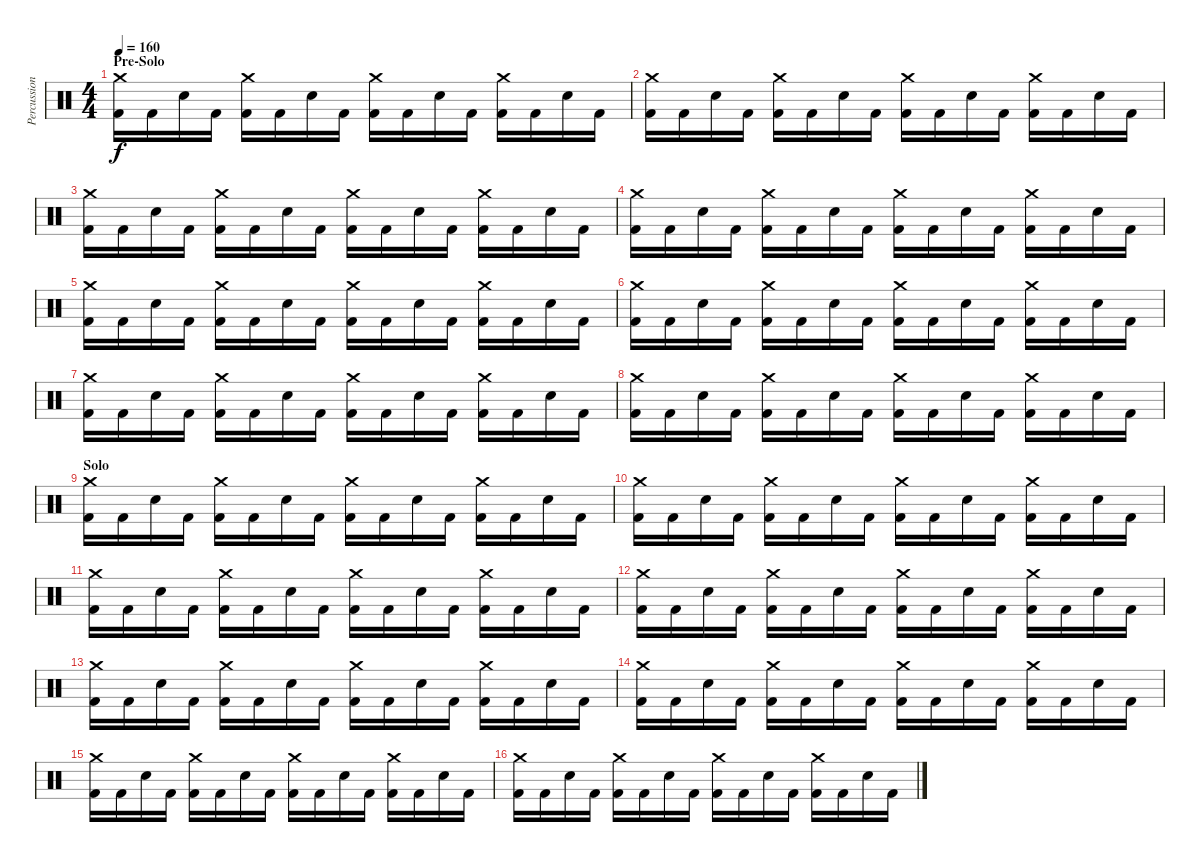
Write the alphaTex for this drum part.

\track ("Percussion" "Percussion") {instrument percussion}
\staff {score}
\articulation defaults
\ts (4 4)
\section ("" "Pre-Solo")
\tempo 160
\clef neutral
\ks c
("Kick (hit) 2" "Crash medium (hit)").16{dy f} "Kick (hit) 2".16 "Electric Snare (hit)".16 "Kick (hit) 2".16 ("Kick (hit) 2" "Crash medium (hit)").16 "Kick (hit) 2".16 "Electric Snare (hit)".16 "Kick (hit) 2".16 ("Kick (hit) 2" "Crash medium (hit)").16 "Kick (hit) 2".16 "Electric Snare (hit)".16 "Kick (hit) 2".16 ("Kick (hit) 2" "Crash medium (hit)").16 "Kick (hit) 2".16 "Electric Snare (hit)".16 "Kick (hit) 2".16 |
("Kick (hit) 2" "Crash medium (hit)").16 "Kick (hit) 2".16 "Electric Snare (hit)".16 "Kick (hit) 2".16 ("Kick (hit) 2" "Crash medium (hit)").16 "Kick (hit) 2".16 "Electric Snare (hit)".16 "Kick (hit) 2".16 ("Kick (hit) 2" "Crash medium (hit)").16 "Kick (hit) 2".16 "Electric Snare (hit)".16 "Kick (hit) 2".16 ("Kick (hit) 2" "Crash medium (hit)").16 "Kick (hit) 2".16 "Electric Snare (hit)".16 "Kick (hit) 2".16 |
("Kick (hit) 2" "Crash medium (hit)").16 "Kick (hit) 2".16 "Electric Snare (hit)".16 "Kick (hit) 2".16 ("Kick (hit) 2" "Crash medium (hit)").16 "Kick (hit) 2".16 "Electric Snare (hit)".16 "Kick (hit) 2".16 ("Kick (hit) 2" "Crash medium (hit)").16 "Kick (hit) 2".16 "Electric Snare (hit)".16 "Kick (hit) 2".16 ("Kick (hit) 2" "Crash medium (hit)").16 "Kick (hit) 2".16 "Electric Snare (hit)".16 "Kick (hit) 2".16 |
("Kick (hit) 2" "Crash medium (hit)").16 "Kick (hit) 2".16 "Electric Snare (hit)".16 "Kick (hit) 2".16 ("Kick (hit) 2" "Crash medium (hit)").16 "Kick (hit) 2".16 "Electric Snare (hit)".16 "Kick (hit) 2".16 ("Kick (hit) 2" "Crash medium (hit)").16 "Kick (hit) 2".16 "Electric Snare (hit)".16 "Kick (hit) 2".16 ("Kick (hit) 2" "Crash medium (hit)").16 "Kick (hit) 2".16 "Electric Snare (hit)".16 "Kick (hit) 2".16 |
("Kick (hit) 2" "Crash medium (hit)").16 "Kick (hit) 2".16 "Electric Snare (hit)".16 "Kick (hit) 2".16 ("Kick (hit) 2" "Crash medium (hit)").16 "Kick (hit) 2".16 "Electric Snare (hit)".16 "Kick (hit) 2".16 ("Kick (hit) 2" "Crash medium (hit)").16 "Kick (hit) 2".16 "Electric Snare (hit)".16 "Kick (hit) 2".16 ("Kick (hit) 2" "Crash medium (hit)").16 "Kick (hit) 2".16 "Electric Snare (hit)".16 "Kick (hit) 2".16 |
("Kick (hit) 2" "Crash medium (hit)").16 "Kick (hit) 2".16 "Electric Snare (hit)".16 "Kick (hit) 2".16 ("Kick (hit) 2" "Crash medium (hit)").16 "Kick (hit) 2".16 "Electric Snare (hit)".16 "Kick (hit) 2".16 ("Kick (hit) 2" "Crash medium (hit)").16 "Kick (hit) 2".16 "Electric Snare (hit)".16 "Kick (hit) 2".16 ("Kick (hit) 2" "Crash medium (hit)").16 "Kick (hit) 2".16 "Electric Snare (hit)".16 "Kick (hit) 2".16 |
("Kick (hit) 2" "Crash medium (hit)").16 "Kick (hit) 2".16 "Electric Snare (hit)".16 "Kick (hit) 2".16 ("Kick (hit) 2" "Crash medium (hit)").16 "Kick (hit) 2".16 "Electric Snare (hit)".16 "Kick (hit) 2".16 ("Kick (hit) 2" "Crash medium (hit)").16 "Kick (hit) 2".16 "Electric Snare (hit)".16 "Kick (hit) 2".16 ("Kick (hit) 2" "Crash medium (hit)").16 "Kick (hit) 2".16 "Electric Snare (hit)".16 "Kick (hit) 2".16 |
("Kick (hit) 2" "Crash medium (hit)").16 "Kick (hit) 2".16 "Electric Snare (hit)".16 "Kick (hit) 2".16 ("Kick (hit) 2" "Crash medium (hit)").16 "Kick (hit) 2".16 "Electric Snare (hit)".16 "Kick (hit) 2".16 ("Kick (hit) 2" "Crash medium (hit)").16 "Kick (hit) 2".16 "Electric Snare (hit)".16 "Kick (hit) 2".16 ("Kick (hit) 2" "Crash medium (hit)").16 "Kick (hit) 2".16 "Electric Snare (hit)".16 "Kick (hit) 2".16 |
\section ("" "Solo")
("Kick (hit) 2" "Crash medium (hit)").16 "Kick (hit) 2".16 "Electric Snare (hit)".16 "Kick (hit) 2".16 ("Kick (hit) 2" "Crash medium (hit)").16 "Kick (hit) 2".16 "Electric Snare (hit)".16 "Kick (hit) 2".16 ("Kick (hit) 2" "Crash medium (hit)").16 "Kick (hit) 2".16 "Electric Snare (hit)".16 "Kick (hit) 2".16 ("Kick (hit) 2" "Crash medium (hit)").16 "Kick (hit) 2".16 "Electric Snare (hit)".16 "Kick (hit) 2".16 |
("Kick (hit) 2" "Crash medium (hit)").16 "Kick (hit) 2".16 "Electric Snare (hit)".16 "Kick (hit) 2".16 ("Kick (hit) 2" "Crash medium (hit)").16 "Kick (hit) 2".16 "Electric Snare (hit)".16 "Kick (hit) 2".16 ("Kick (hit) 2" "Crash medium (hit)").16 "Kick (hit) 2".16 "Electric Snare (hit)".16 "Kick (hit) 2".16 ("Kick (hit) 2" "Crash medium (hit)").16 "Kick (hit) 2".16 "Electric Snare (hit)".16 "Kick (hit) 2".16 |
("Kick (hit) 2" "Crash medium (hit)").16 "Kick (hit) 2".16 "Electric Snare (hit)".16 "Kick (hit) 2".16 ("Kick (hit) 2" "Crash medium (hit)").16 "Kick (hit) 2".16 "Electric Snare (hit)".16 "Kick (hit) 2".16 ("Kick (hit) 2" "Crash medium (hit)").16 "Kick (hit) 2".16 "Electric Snare (hit)".16 "Kick (hit) 2".16 ("Kick (hit) 2" "Crash medium (hit)").16 "Kick (hit) 2".16 "Electric Snare (hit)".16 "Kick (hit) 2".16 |
("Kick (hit) 2" "Crash medium (hit)").16 "Kick (hit) 2".16 "Electric Snare (hit)".16 "Kick (hit) 2".16 ("Kick (hit) 2" "Crash medium (hit)").16 "Kick (hit) 2".16 "Electric Snare (hit)".16 "Kick (hit) 2".16 ("Kick (hit) 2" "Crash medium (hit)").16 "Kick (hit) 2".16 "Electric Snare (hit)".16 "Kick (hit) 2".16 ("Kick (hit) 2" "Crash medium (hit)").16 "Kick (hit) 2".16 "Electric Snare (hit)".16 "Kick (hit) 2".16 |
("Kick (hit) 2" "Crash medium (hit)").16 "Kick (hit) 2".16 "Electric Snare (hit)".16 "Kick (hit) 2".16 ("Kick (hit) 2" "Crash medium (hit)").16 "Kick (hit) 2".16 "Electric Snare (hit)".16 "Kick (hit) 2".16 ("Kick (hit) 2" "Crash medium (hit)").16 "Kick (hit) 2".16 "Electric Snare (hit)".16 "Kick (hit) 2".16 ("Kick (hit) 2" "Crash medium (hit)").16 "Kick (hit) 2".16 "Electric Snare (hit)".16 "Kick (hit) 2".16 |
("Kick (hit) 2" "Crash medium (hit)").16 "Kick (hit) 2".16 "Electric Snare (hit)".16 "Kick (hit) 2".16 ("Kick (hit) 2" "Crash medium (hit)").16 "Kick (hit) 2".16 "Electric Snare (hit)".16 "Kick (hit) 2".16 ("Kick (hit) 2" "Crash medium (hit)").16 "Kick (hit) 2".16 "Electric Snare (hit)".16 "Kick (hit) 2".16 ("Kick (hit) 2" "Crash medium (hit)").16 "Kick (hit) 2".16 "Electric Snare (hit)".16 "Kick (hit) 2".16 |
("Kick (hit) 2" "Crash medium (hit)").16 "Kick (hit) 2".16 "Electric Snare (hit)".16 "Kick (hit) 2".16 ("Kick (hit) 2" "Crash medium (hit)").16 "Kick (hit) 2".16 "Electric Snare (hit)".16 "Kick (hit) 2".16 ("Kick (hit) 2" "Crash medium (hit)").16 "Kick (hit) 2".16 "Electric Snare (hit)".16 "Kick (hit) 2".16 ("Kick (hit) 2" "Crash medium (hit)").16 "Kick (hit) 2".16 "Electric Snare (hit)".16 "Kick (hit) 2".16 |
("Kick (hit) 2" "Crash medium (hit)").16 "Kick (hit) 2".16 "Electric Snare (hit)".16 "Kick (hit) 2".16 ("Kick (hit) 2" "Crash medium (hit)").16 "Kick (hit) 2".16 "Electric Snare (hit)".16 "Kick (hit) 2".16 ("Kick (hit) 2" "Crash medium (hit)").16 "Kick (hit) 2".16 "Electric Snare (hit)".16 "Kick (hit) 2".16 ("Kick (hit) 2" "Crash medium (hit)").16 "Kick (hit) 2".16 "Electric Snare (hit)".16 "Kick (hit) 2".16
